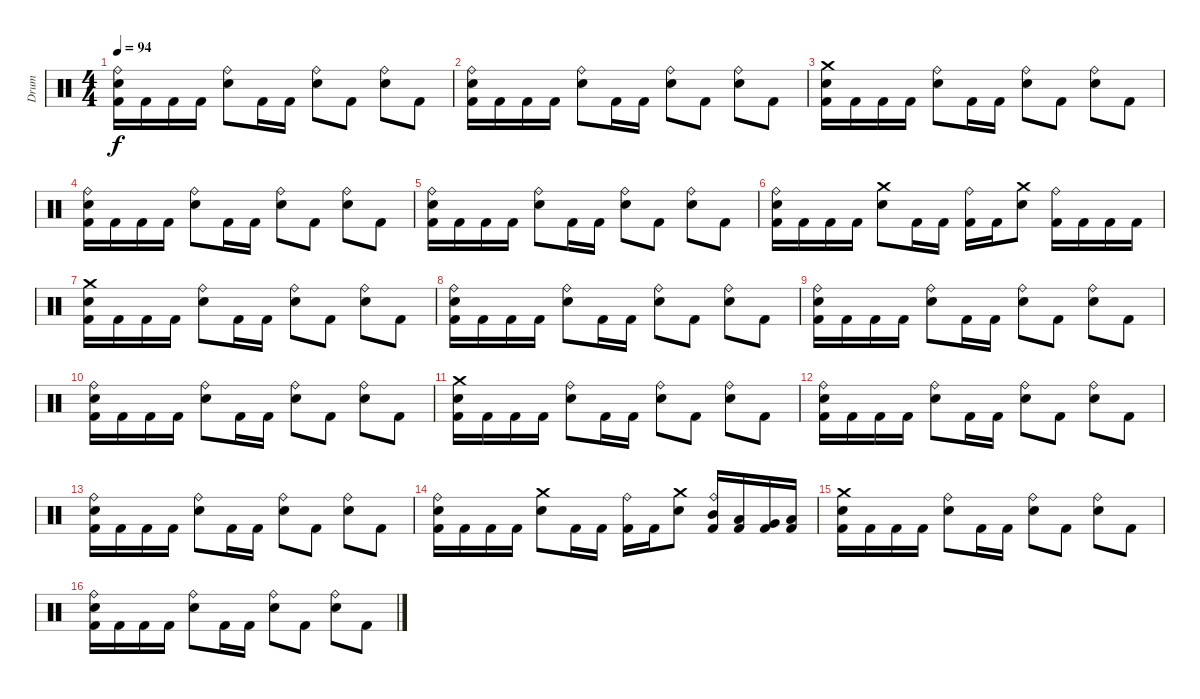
\track ("Drum" "Drum") {instrument percussion}
\staff {score}
\articulation defaults
\ts (4 4)
\tempo 94
\clef neutral
\ks c
("Kick (hit) 2" "Electric Snare (hit)" "Ride (bell)").16{dy f} "Kick (hit) 2".16 "Kick (hit) 2".16 "Kick (hit) 2".16 ("Electric Snare (hit)" "Ride (bell)").8 "Kick (hit) 2".16 "Kick (hit) 2".16 ("Electric Snare (hit)" "Ride (bell)").8 "Kick (hit) 2".8 ("Electric Snare (hit)" "Ride (bell)").8 "Kick (hit) 2".8 |
("Kick (hit) 2" "Electric Snare (hit)" "Ride (bell)").16 "Kick (hit) 2".16 "Kick (hit) 2".16 "Kick (hit) 2".16 ("Electric Snare (hit)" "Ride (bell)").8 "Kick (hit) 2".16 "Kick (hit) 2".16 ("Electric Snare (hit)" "Ride (bell)").8 "Kick (hit) 2".8 ("Electric Snare (hit)" "Ride (bell)").8 "Kick (hit) 2".8 |
("Kick (hit) 2" "Electric Snare (hit)" "Crash medium (hit)").16 "Kick (hit) 2".16 "Kick (hit) 2".16 "Kick (hit) 2".16 ("Electric Snare (hit)" "Ride (bell)").8 "Kick (hit) 2".16 "Kick (hit) 2".16 ("Electric Snare (hit)" "Ride (bell)").8 "Kick (hit) 2".8 ("Electric Snare (hit)" "Ride (bell)").8 "Kick (hit) 2".8 |
("Kick (hit) 2" "Electric Snare (hit)" "Ride (bell)").16 "Kick (hit) 2".16 "Kick (hit) 2".16 "Kick (hit) 2".16 ("Electric Snare (hit)" "Ride (bell)").8 "Kick (hit) 2".16 "Kick (hit) 2".16 ("Electric Snare (hit)" "Ride (bell)").8 "Kick (hit) 2".8 ("Electric Snare (hit)" "Ride (bell)").8 "Kick (hit) 2".8 |
("Kick (hit) 2" "Electric Snare (hit)" "Ride (bell)").16 "Kick (hit) 2".16 "Kick (hit) 2".16 "Kick (hit) 2".16 ("Electric Snare (hit)" "Ride (bell)").8 "Kick (hit) 2".16 "Kick (hit) 2".16 ("Electric Snare (hit)" "Ride (bell)").8 "Kick (hit) 2".8 ("Electric Snare (hit)" "Ride (bell)").8 "Kick (hit) 2".8 |
("Kick (hit) 2" "Electric Snare (hit)" "Ride (bell)").16 "Kick (hit) 2".16 "Kick (hit) 2".16 "Kick (hit) 2".16 ("Electric Snare (hit)" "Crash medium (hit)").8 "Kick (hit) 2".16 "Kick (hit) 2".16 ("Kick (hit) 2" "Ride (bell)").16 "Kick (hit) 2".16 ("Electric Snare (hit)" "Crash medium (hit)").8 ("Kick (hit) 2" "Ride (bell)").16 "Kick (hit) 2".16 "Kick (hit) 2".16 "Kick (hit) 2".16 |
("Kick (hit) 2" "Electric Snare (hit)" "Crash medium (hit)").16 "Kick (hit) 2".16 "Kick (hit) 2".16 "Kick (hit) 2".16 ("Electric Snare (hit)" "Ride (bell)").8 "Kick (hit) 2".16 "Kick (hit) 2".16 ("Electric Snare (hit)" "Ride (bell)").8 "Kick (hit) 2".8 ("Electric Snare (hit)" "Ride (bell)").8 "Kick (hit) 2".8 |
("Kick (hit) 2" "Electric Snare (hit)" "Ride (bell)").16 "Kick (hit) 2".16 "Kick (hit) 2".16 "Kick (hit) 2".16 ("Electric Snare (hit)" "Ride (bell)").8 "Kick (hit) 2".16 "Kick (hit) 2".16 ("Electric Snare (hit)" "Ride (bell)").8 "Kick (hit) 2".8 ("Electric Snare (hit)" "Ride (bell)").8 "Kick (hit) 2".8 |
("Kick (hit) 2" "Electric Snare (hit)" "Ride (bell)").16 "Kick (hit) 2".16 "Kick (hit) 2".16 "Kick (hit) 2".16 ("Electric Snare (hit)" "Ride (bell)").8 "Kick (hit) 2".16 "Kick (hit) 2".16 ("Electric Snare (hit)" "Ride (bell)").8 "Kick (hit) 2".8 ("Electric Snare (hit)" "Ride (bell)").8 "Kick (hit) 2".8 |
("Kick (hit) 2" "Electric Snare (hit)" "Ride (bell)").16 "Kick (hit) 2".16 "Kick (hit) 2".16 "Kick (hit) 2".16 ("Electric Snare (hit)" "Ride (bell)").8 "Kick (hit) 2".16 "Kick (hit) 2".16 ("Electric Snare (hit)" "Ride (bell)").8 "Kick (hit) 2".8 ("Electric Snare (hit)" "Ride (bell)").8 "Kick (hit) 2".8 |
("Kick (hit) 2" "Electric Snare (hit)" "Crash medium (hit)").16 "Kick (hit) 2".16 "Kick (hit) 2".16 "Kick (hit) 2".16 ("Electric Snare (hit)" "Ride (bell)").8 "Kick (hit) 2".16 "Kick (hit) 2".16 ("Electric Snare (hit)" "Ride (bell)").8 "Kick (hit) 2".8 ("Electric Snare (hit)" "Ride (bell)").8 "Kick (hit) 2".8 |
("Kick (hit) 2" "Electric Snare (hit)" "Ride (bell)").16 "Kick (hit) 2".16 "Kick (hit) 2".16 "Kick (hit) 2".16 ("Electric Snare (hit)" "Ride (bell)").8 "Kick (hit) 2".16 "Kick (hit) 2".16 ("Electric Snare (hit)" "Ride (bell)").8 "Kick (hit) 2".8 ("Electric Snare (hit)" "Ride (bell)").8 "Kick (hit) 2".8 |
("Kick (hit) 2" "Electric Snare (hit)" "Ride (bell)").16 "Kick (hit) 2".16 "Kick (hit) 2".16 "Kick (hit) 2".16 ("Electric Snare (hit)" "Ride (bell)").8 "Kick (hit) 2".16 "Kick (hit) 2".16 ("Electric Snare (hit)" "Ride (bell)").8 "Kick (hit) 2".8 ("Electric Snare (hit)" "Ride (bell)").8 "Kick (hit) 2".8 |
("Kick (hit) 2" "Electric Snare (hit)" "Ride (bell)").16 "Kick (hit) 2".16 "Kick (hit) 2".16 "Kick (hit) 2".16 ("Electric Snare (hit)" "Crash medium (hit)").8 "Kick (hit) 2".16 "Kick (hit) 2".16 ("Kick (hit) 2" "Ride (bell)").16 "Kick (hit) 2".16 ("Electric Snare (hit)" "Crash medium (hit)").8 ("Kick (hit) 2" "Mid Tom (hit)" "Ride (bell)").16 ("Kick (hit) 2" "Low Tom (hit)").16 ("Kick (hit) 2" "Very Low Tom (hit)").16 ("Kick (hit) 2" "Low Floor Tom (hit)").16 |
("Kick (hit) 2" "Electric Snare (hit)" "Crash medium (hit)").16 "Kick (hit) 2".16 "Kick (hit) 2".16 "Kick (hit) 2".16 ("Electric Snare (hit)" "Ride (bell)").8 "Kick (hit) 2".16 "Kick (hit) 2".16 ("Electric Snare (hit)" "Ride (bell)").8 "Kick (hit) 2".8 ("Electric Snare (hit)" "Ride (bell)").8 "Kick (hit) 2".8 |
("Kick (hit) 2" "Electric Snare (hit)" "Ride (bell)").16 "Kick (hit) 2".16 "Kick (hit) 2".16 "Kick (hit) 2".16 ("Electric Snare (hit)" "Ride (bell)").8 "Kick (hit) 2".16 "Kick (hit) 2".16 ("Electric Snare (hit)" "Ride (bell)").8 "Kick (hit) 2".8 ("Electric Snare (hit)" "Ride (bell)").8 "Kick (hit) 2".8
